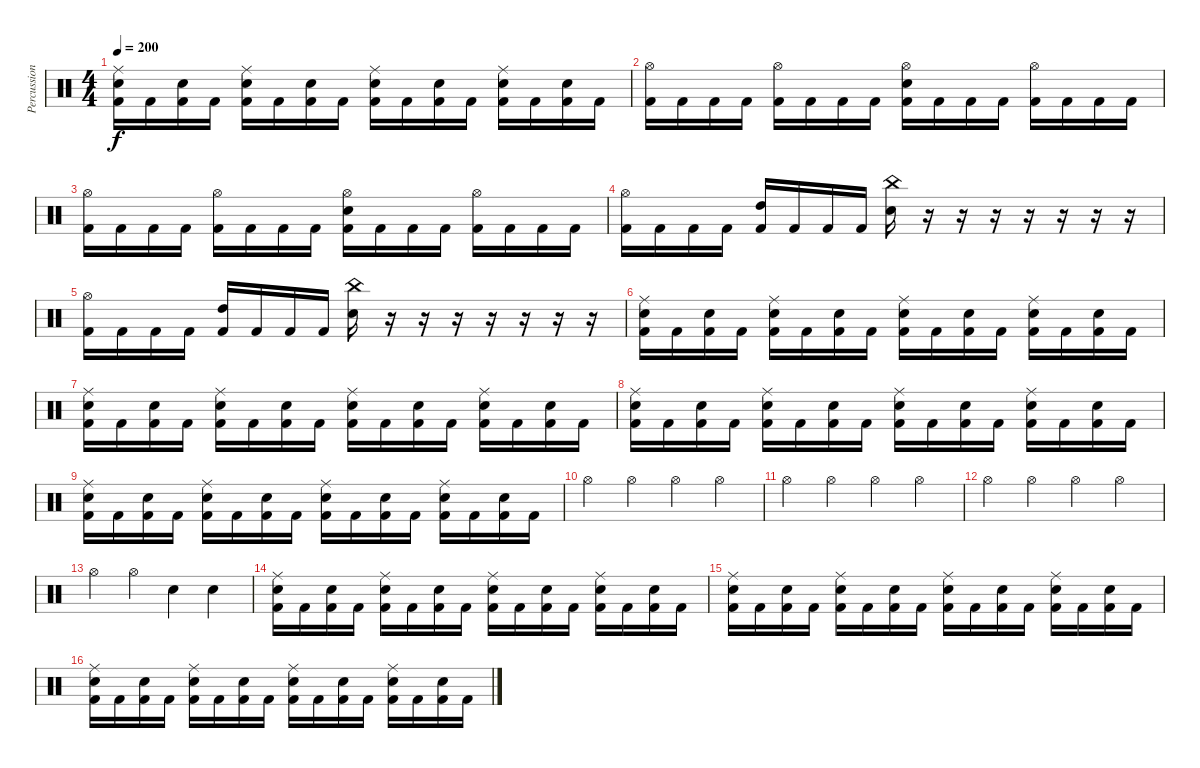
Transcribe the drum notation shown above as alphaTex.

\track ("Percussions" "Percussion") {instrument percussion}
\staff {score}
\articulation defaults
\ts (4 4)
\tempo 200
\clef neutral
\ks c
("Ride (middle)" "Snare (hit) 2" "Kick (hit) 2").16{dy f} "Kick (hit) 2".16 ("Snare (hit) 2" "Kick (hit) 2").16 "Kick (hit) 2".16 ("Ride (middle)" "Snare (hit) 2" "Kick (hit) 2").16 "Kick (hit) 2".16 ("Snare (hit) 2" "Kick (hit) 2").16 "Kick (hit) 2".16 ("Ride (middle)" "Snare (hit) 2" "Kick (hit) 2").16 "Kick (hit) 2".16 ("Snare (hit) 2" "Kick (hit) 2").16 "Kick (hit) 2".16 ("Ride (middle)" "Snare (hit) 2" "Kick (hit) 2").16 "Kick (hit) 2".16 ("Snare (hit) 2" "Kick (hit) 2").16 "Kick (hit) 2".16 |
("Hi-Hat (open)" "Kick (hit) 2").16 "Kick (hit) 2".16 "Kick (hit) 2".16 "Kick (hit) 2".16 ("Hi-Hat (open)" "Kick (hit) 2").16 "Kick (hit) 2".16 "Kick (hit) 2".16 "Kick (hit) 2".16 ("Hi-Hat (open)" "Snare (hit) 2" "Kick (hit) 2").16 "Kick (hit) 2".16 "Kick (hit) 2".16 "Kick (hit) 2".16 ("Hi-Hat (open)" "Kick (hit) 2").16 "Kick (hit) 2".16 "Kick (hit) 2".16 "Kick (hit) 2".16 |
("Hi-Hat (open)" "Kick (hit) 2").16 "Kick (hit) 2".16 "Kick (hit) 2".16 "Kick (hit) 2".16 ("Hi-Hat (open)" "Kick (hit) 2").16 "Kick (hit) 2".16 "Kick (hit) 2".16 "Kick (hit) 2".16 ("Hi-Hat (open)" "Snare (hit) 2" "Kick (hit) 2").16 "Kick (hit) 2".16 "Kick (hit) 2".16 "Kick (hit) 2".16 ("Hi-Hat (open)" "Kick (hit) 2").16 "Kick (hit) 2".16 "Kick (hit) 2".16 "Kick (hit) 2".16 |
("Hi-Hat (open)" "Kick (hit) 2").16 "Kick (hit) 2".16 "Kick (hit) 2".16 "Kick (hit) 2".16 ("High Tom (hit)" "Kick (hit) 2").16 "Kick (hit) 2".16 "Kick (hit) 2".16 "Kick (hit) 2".16 ("China (hit)" "Snare (hit) 2").16 r.16 r.16 r.16 r.16 r.16 r.16 r.16 |
("Hi-Hat (open)" "Kick (hit) 2").16 "Kick (hit) 2".16 "Kick (hit) 2".16 "Kick (hit) 2".16 ("High Tom (hit)" "Kick (hit) 2").16 "Kick (hit) 2".16 "Kick (hit) 2".16 "Kick (hit) 2".16 ("China (hit)" "Snare (hit) 2").16 r.16 r.16 r.16 r.16 r.16 r.16 r.16 |
("Ride (middle)" "Snare (hit) 2" "Kick (hit) 2").16 "Kick (hit) 2".16 ("Snare (hit) 2" "Kick (hit) 2").16 "Kick (hit) 2".16 ("Ride (middle)" "Snare (hit) 2" "Kick (hit) 2").16 "Kick (hit) 2".16 ("Snare (hit) 2" "Kick (hit) 2").16 "Kick (hit) 2".16 ("Ride (middle)" "Snare (hit) 2" "Kick (hit) 2").16 "Kick (hit) 2".16 ("Snare (hit) 2" "Kick (hit) 2").16 "Kick (hit) 2".16 ("Ride (middle)" "Snare (hit) 2" "Kick (hit) 2").16 "Kick (hit) 2".16 ("Snare (hit) 2" "Kick (hit) 2").16 "Kick (hit) 2".16 |
("Ride (middle)" "Snare (hit) 2" "Kick (hit) 2").16 "Kick (hit) 2".16 ("Snare (hit) 2" "Kick (hit) 2").16 "Kick (hit) 2".16 ("Ride (middle)" "Snare (hit) 2" "Kick (hit) 2").16 "Kick (hit) 2".16 ("Snare (hit) 2" "Kick (hit) 2").16 "Kick (hit) 2".16 ("Ride (middle)" "Snare (hit) 2" "Kick (hit) 2").16 "Kick (hit) 2".16 ("Snare (hit) 2" "Kick (hit) 2").16 "Kick (hit) 2".16 ("Ride (middle)" "Snare (hit) 2" "Kick (hit) 2").16 "Kick (hit) 2".16 ("Snare (hit) 2" "Kick (hit) 2").16 "Kick (hit) 2".16 |
("Ride (middle)" "Snare (hit) 2" "Kick (hit) 2").16 "Kick (hit) 2".16 ("Snare (hit) 2" "Kick (hit) 2").16 "Kick (hit) 2".16 ("Ride (middle)" "Snare (hit) 2" "Kick (hit) 2").16 "Kick (hit) 2".16 ("Snare (hit) 2" "Kick (hit) 2").16 "Kick (hit) 2".16 ("Ride (middle)" "Snare (hit) 2" "Kick (hit) 2").16 "Kick (hit) 2".16 ("Snare (hit) 2" "Kick (hit) 2").16 "Kick (hit) 2".16 ("Ride (middle)" "Snare (hit) 2" "Kick (hit) 2").16 "Kick (hit) 2".16 ("Snare (hit) 2" "Kick (hit) 2").16 "Kick (hit) 2".16 |
("Ride (middle)" "Snare (hit) 2" "Kick (hit) 2").16 "Kick (hit) 2".16 ("Snare (hit) 2" "Kick (hit) 2").16 "Kick (hit) 2".16 ("Ride (middle)" "Snare (hit) 2" "Kick (hit) 2").16 "Kick (hit) 2".16 ("Snare (hit) 2" "Kick (hit) 2").16 "Kick (hit) 2".16 ("Ride (middle)" "Snare (hit) 2" "Kick (hit) 2").16 "Kick (hit) 2".16 ("Snare (hit) 2" "Kick (hit) 2").16 "Kick (hit) 2".16 ("Ride (middle)" "Snare (hit) 2" "Kick (hit) 2").16 "Kick (hit) 2".16 ("Snare (hit) 2" "Kick (hit) 2").16 "Kick (hit) 2".16 |
"Hi-Hat (open)".4 "Hi-Hat (open)".4 "Hi-Hat (open)".4 "Hi-Hat (open)".4 |
"Hi-Hat (open)".4 "Hi-Hat (open)".4 "Hi-Hat (open)".4 "Hi-Hat (open)".4 |
"Hi-Hat (open)".4 "Hi-Hat (open)".4 "Hi-Hat (open)".4 "Hi-Hat (open)".4 |
"Hi-Hat (open)".4 "Hi-Hat (open)".4 "Snare (hit) 2".4 "Snare (hit) 2".4 |
("Ride (middle)" "Snare (hit) 2" "Kick (hit) 2").16 "Kick (hit) 2".16 ("Snare (hit) 2" "Kick (hit) 2").16 "Kick (hit) 2".16 ("Ride (middle)" "Snare (hit) 2" "Kick (hit) 2").16 "Kick (hit) 2".16 ("Snare (hit) 2" "Kick (hit) 2").16 "Kick (hit) 2".16 ("Ride (middle)" "Snare (hit) 2" "Kick (hit) 2").16 "Kick (hit) 2".16 ("Snare (hit) 2" "Kick (hit) 2").16 "Kick (hit) 2".16 ("Ride (middle)" "Snare (hit) 2" "Kick (hit) 2").16 "Kick (hit) 2".16 ("Snare (hit) 2" "Kick (hit) 2").16 "Kick (hit) 2".16 |
("Ride (middle)" "Snare (hit) 2" "Kick (hit) 2").16 "Kick (hit) 2".16 ("Snare (hit) 2" "Kick (hit) 2").16 "Kick (hit) 2".16 ("Ride (middle)" "Snare (hit) 2" "Kick (hit) 2").16 "Kick (hit) 2".16 ("Snare (hit) 2" "Kick (hit) 2").16 "Kick (hit) 2".16 ("Ride (middle)" "Snare (hit) 2" "Kick (hit) 2").16 "Kick (hit) 2".16 ("Snare (hit) 2" "Kick (hit) 2").16 "Kick (hit) 2".16 ("Ride (middle)" "Snare (hit) 2" "Kick (hit) 2").16 "Kick (hit) 2".16 ("Snare (hit) 2" "Kick (hit) 2").16 "Kick (hit) 2".16 |
("Ride (middle)" "Snare (hit) 2" "Kick (hit) 2").16 "Kick (hit) 2".16 ("Snare (hit) 2" "Kick (hit) 2").16 "Kick (hit) 2".16 ("Ride (middle)" "Snare (hit) 2" "Kick (hit) 2").16 "Kick (hit) 2".16 ("Snare (hit) 2" "Kick (hit) 2").16 "Kick (hit) 2".16 ("Ride (middle)" "Snare (hit) 2" "Kick (hit) 2").16 "Kick (hit) 2".16 ("Snare (hit) 2" "Kick (hit) 2").16 "Kick (hit) 2".16 ("Ride (middle)" "Snare (hit) 2" "Kick (hit) 2").16 "Kick (hit) 2".16 ("Snare (hit) 2" "Kick (hit) 2").16 "Kick (hit) 2".16
